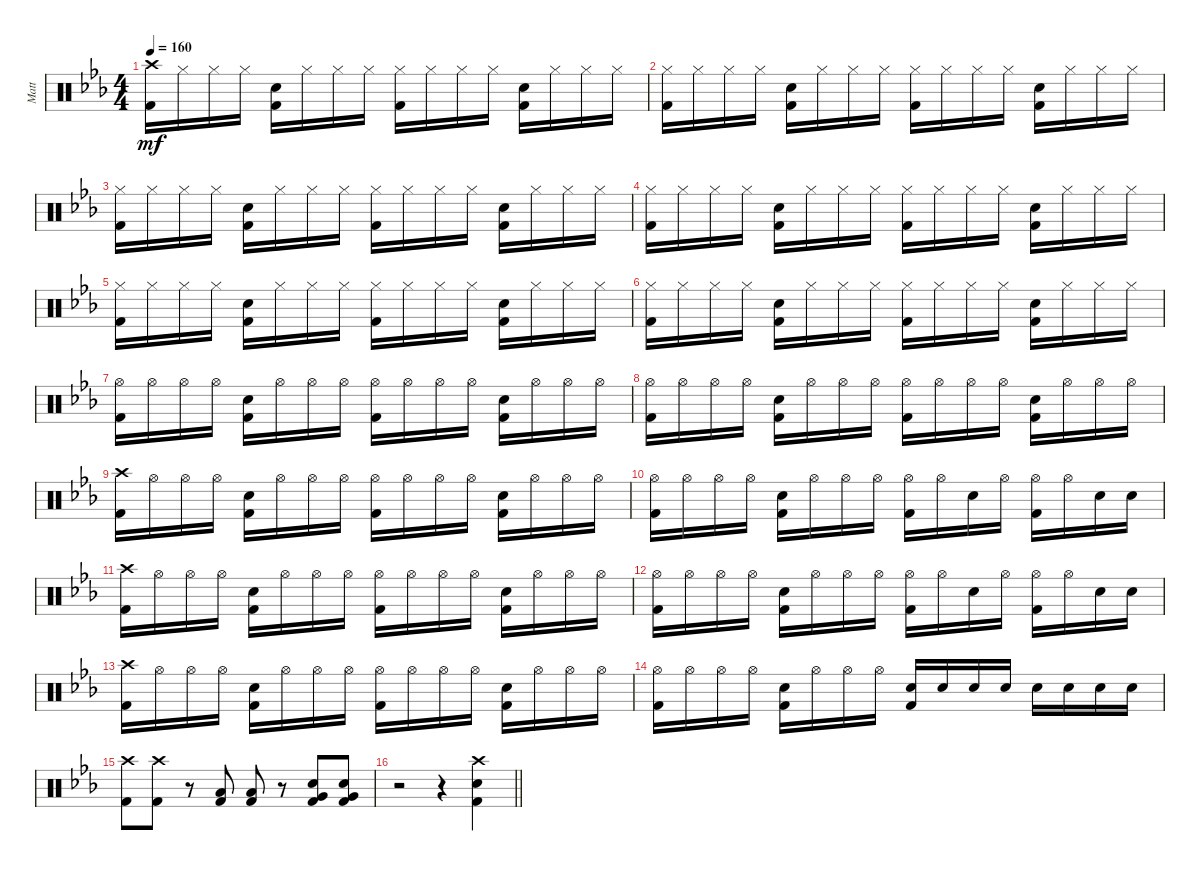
\track ("Matt" "Matt") {instrument percussion}
\staff {score}
\articulation defaults
\ts (4 4)
\tempo 160
\clef neutral
\ks cminor
("Crash high (hit)" "Kick (hit) 2").16{dy mf} "Hi-Hat (closed)".16 "Hi-Hat (closed)".16 "Hi-Hat (closed)".16 ("Electric Snare (hit)" "Kick (hit) 2").16 "Hi-Hat (closed)".16 "Hi-Hat (closed)".16 "Hi-Hat (closed)".16 ("Hi-Hat (closed)" "Kick (hit) 2").16 "Hi-Hat (closed)".16 "Hi-Hat (closed)".16 "Hi-Hat (closed)".16 ("Electric Snare (hit)" "Kick (hit) 2").16 "Hi-Hat (closed)".16 "Hi-Hat (closed)".16 "Hi-Hat (closed)".16 |
("Hi-Hat (closed)" "Kick (hit) 2").16 "Hi-Hat (closed)".16 "Hi-Hat (closed)".16 "Hi-Hat (closed)".16 ("Electric Snare (hit)" "Kick (hit) 2").16 "Hi-Hat (closed)".16 "Hi-Hat (closed)".16 "Hi-Hat (closed)".16 ("Hi-Hat (closed)" "Kick (hit) 2").16 "Hi-Hat (closed)".16 "Hi-Hat (closed)".16 "Hi-Hat (closed)".16 ("Electric Snare (hit)" "Kick (hit) 2").16 "Hi-Hat (closed)".16 "Hi-Hat (closed)".16 "Hi-Hat (closed)".16 |
("Hi-Hat (closed)" "Kick (hit) 2").16 "Hi-Hat (closed)".16 "Hi-Hat (closed)".16 "Hi-Hat (closed)".16 ("Electric Snare (hit)" "Kick (hit) 2").16 "Hi-Hat (closed)".16 "Hi-Hat (closed)".16 "Hi-Hat (closed)".16 ("Hi-Hat (closed)" "Kick (hit) 2").16 "Hi-Hat (closed)".16 "Hi-Hat (closed)".16 "Hi-Hat (closed)".16 ("Electric Snare (hit)" "Kick (hit) 2").16 "Hi-Hat (closed)".16 "Hi-Hat (closed)".16 "Hi-Hat (closed)".16 |
("Hi-Hat (closed)" "Kick (hit) 2").16 "Hi-Hat (closed)".16 "Hi-Hat (closed)".16 "Hi-Hat (closed)".16 ("Electric Snare (hit)" "Kick (hit) 2").16 "Hi-Hat (closed)".16 "Hi-Hat (closed)".16 "Hi-Hat (closed)".16 ("Hi-Hat (closed)" "Kick (hit) 2").16 "Hi-Hat (closed)".16 "Hi-Hat (closed)".16 "Hi-Hat (closed)".16 ("Electric Snare (hit)" "Kick (hit) 2").16 "Hi-Hat (closed)".16 "Hi-Hat (closed)".16 "Hi-Hat (closed)".16 |
("Hi-Hat (closed)" "Kick (hit) 2").16 "Hi-Hat (closed)".16 "Hi-Hat (closed)".16 "Hi-Hat (closed)".16 ("Electric Snare (hit)" "Kick (hit) 2").16 "Hi-Hat (closed)".16 "Hi-Hat (closed)".16 "Hi-Hat (closed)".16 ("Hi-Hat (closed)" "Kick (hit) 2").16 "Hi-Hat (closed)".16 "Hi-Hat (closed)".16 "Hi-Hat (closed)".16 ("Electric Snare (hit)" "Kick (hit) 2").16 "Hi-Hat (closed)".16 "Hi-Hat (closed)".16 "Hi-Hat (closed)".16 |
("Hi-Hat (closed)" "Kick (hit) 2").16 "Hi-Hat (closed)".16 "Hi-Hat (closed)".16 "Hi-Hat (closed)".16 ("Electric Snare (hit)" "Kick (hit) 2").16 "Hi-Hat (closed)".16 "Hi-Hat (closed)".16 "Hi-Hat (closed)".16 ("Hi-Hat (closed)" "Kick (hit) 2").16 "Hi-Hat (closed)".16 "Hi-Hat (closed)".16 "Hi-Hat (closed)".16 ("Electric Snare (hit)" "Kick (hit) 2").16 "Hi-Hat (closed)".16 "Hi-Hat (closed)".16 "Hi-Hat (closed)".16 |
("Hi-Hat (open)" "Kick (hit) 2").16 "Hi-Hat (open)".16 "Hi-Hat (open)".16 "Hi-Hat (open)".16 ("Electric Snare (hit)" "Kick (hit) 2").16 "Hi-Hat (open)".16 "Hi-Hat (open)".16 "Hi-Hat (open)".16 ("Hi-Hat (open)" "Kick (hit) 2").16 "Hi-Hat (open)".16 "Hi-Hat (open)".16 "Hi-Hat (open)".16 ("Electric Snare (hit)" "Kick (hit) 2").16 "Hi-Hat (open)".16 "Hi-Hat (open)".16 "Hi-Hat (open)".16 |
("Hi-Hat (open)" "Kick (hit) 2").16 "Hi-Hat (open)".16 "Hi-Hat (open)".16 "Hi-Hat (open)".16 ("Electric Snare (hit)" "Kick (hit) 2").16 "Hi-Hat (open)".16 "Hi-Hat (open)".16 "Hi-Hat (open)".16 ("Hi-Hat (open)" "Kick (hit) 2").16 "Hi-Hat (open)".16 "Hi-Hat (open)".16 "Hi-Hat (open)".16 ("Electric Snare (hit)" "Kick (hit) 2").16 "Hi-Hat (open)".16 "Hi-Hat (open)".16 "Hi-Hat (open)".16 |
("Crash high (hit)" "Kick (hit) 2").16 "Hi-Hat (open)".16 "Hi-Hat (open)".16 "Hi-Hat (open)".16 ("Electric Snare (hit)" "Kick (hit) 2").16 "Hi-Hat (open)".16 "Hi-Hat (open)".16 "Hi-Hat (open)".16 ("Hi-Hat (open)" "Kick (hit) 2").16 "Hi-Hat (open)".16 "Hi-Hat (open)".16 "Hi-Hat (open)".16 ("Electric Snare (hit)" "Kick (hit) 2").16 "Hi-Hat (open)".16 "Hi-Hat (open)".16 "Hi-Hat (open)".16 |
("Hi-Hat (open)" "Kick (hit) 2").16 "Hi-Hat (open)".16 "Hi-Hat (open)".16 "Hi-Hat (open)".16 ("Electric Snare (hit)" "Kick (hit) 2").16 "Hi-Hat (open)".16 "Hi-Hat (open)".16 "Hi-Hat (open)".16 ("Hi-Hat (open)" "Kick (hit) 2").16 "Hi-Hat (open)".16 "Electric Snare (hit)".16 "Hi-Hat (open)".16 ("Hi-Hat (open)" "Kick (hit) 2").16 "Hi-Hat (open)".16 "Electric Snare (hit)".16 "Electric Snare (hit)".16 |
("Crash high (hit)" "Kick (hit) 2").16 "Hi-Hat (open)".16 "Hi-Hat (open)".16 "Hi-Hat (open)".16 ("Electric Snare (hit)" "Kick (hit) 2").16 "Hi-Hat (open)".16 "Hi-Hat (open)".16 "Hi-Hat (open)".16 ("Hi-Hat (open)" "Kick (hit) 2").16 "Hi-Hat (open)".16 "Hi-Hat (open)".16 "Hi-Hat (open)".16 ("Electric Snare (hit)" "Kick (hit) 2").16 "Hi-Hat (open)".16 "Hi-Hat (open)".16 "Hi-Hat (open)".16 |
("Hi-Hat (open)" "Kick (hit) 2").16 "Hi-Hat (open)".16 "Hi-Hat (open)".16 "Hi-Hat (open)".16 ("Electric Snare (hit)" "Kick (hit) 2").16 "Hi-Hat (open)".16 "Hi-Hat (open)".16 "Hi-Hat (open)".16 ("Hi-Hat (open)" "Kick (hit) 2").16 "Hi-Hat (open)".16 "Electric Snare (hit)".16 "Hi-Hat (open)".16 ("Hi-Hat (open)" "Kick (hit) 2").16 "Hi-Hat (open)".16 "Electric Snare (hit)".16 "Electric Snare (hit)".16 |
("Crash high (hit)" "Kick (hit) 2").16 "Hi-Hat (open)".16 "Hi-Hat (open)".16 "Hi-Hat (open)".16 ("Electric Snare (hit)" "Kick (hit) 2").16 "Hi-Hat (open)".16 "Hi-Hat (open)".16 "Hi-Hat (open)".16 ("Hi-Hat (open)" "Kick (hit) 2").16 "Hi-Hat (open)".16 "Hi-Hat (open)".16 "Hi-Hat (open)".16 ("Electric Snare (hit)" "Kick (hit) 2").16 "Hi-Hat (open)".16 "Hi-Hat (open)".16 "Hi-Hat (open)".16 |
("Hi-Hat (open)" "Kick (hit) 2").16 "Hi-Hat (open)".16 "Hi-Hat (open)".16 "Hi-Hat (open)".16 ("Electric Snare (hit)" "Kick (hit) 2").16 "Hi-Hat (open)".16 "Hi-Hat (open)".16 "Hi-Hat (open)".16 ("Electric Snare (hit)" "Kick (hit) 2").16 "Electric Snare (hit)".16 "Electric Snare (hit)".16 "Electric Snare (hit)".16 "Electric Snare (hit)".16 "Electric Snare (hit)".16 "Electric Snare (hit)".16 "Electric Snare (hit)".16 |
("Crash high (hit)" "Kick (hit) 2").8 ("Crash high (hit)" "Kick (hit) 2").8 r.8 ("Low Tom (hit)" "Kick (hit) 2").8 ("Low Tom (hit)" "Kick (hit) 2").8 r.8 ("Very Low Tom (hit)" "Electric Snare (hit)" "Kick (hit) 2").8 ("Very Low Tom (hit)" "Electric Snare (hit)" "Kick (hit) 2").8 |
\barLineRight lightlight
r.2 r.4 ("Crash high (hit)" "Electric Snare (hit)" "Kick (hit) 2").4
